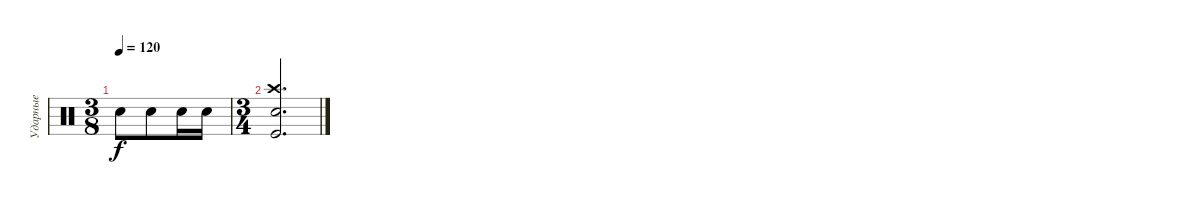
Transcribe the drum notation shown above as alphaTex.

\track ("Ударные" "Ударные") {instrument percussion}
\staff {score}
\articulation defaults
\ts (3 8)
\tempo 120
\clef neutral
\ks c "Electric Snare (hit)".8{dy f} "Electric Snare (hit)".8 "Electric Snare (hit)".16 "Electric Snare (hit)".16
|
\ts (3 4)
("Crash high (hit)" "Electric Snare (hit)" "Kick (hit)").2{d}
